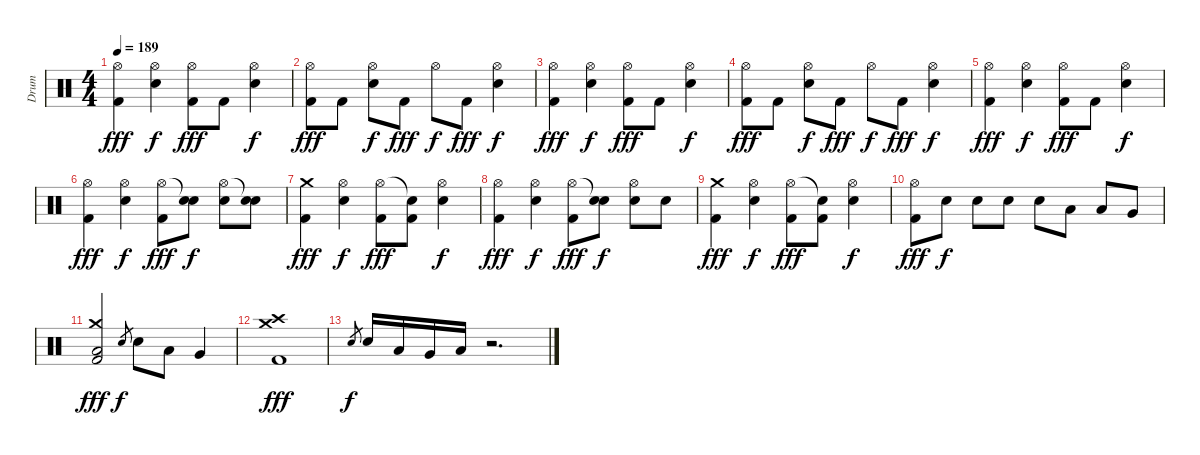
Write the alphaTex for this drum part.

\track ("Drum" "Drum") {instrument percussion}
\staff {score}
\articulation defaults
\ts (4 4)
\tempo 189
\clef neutral
\ks c
("Hi-Hat (open)" "Kick (hit) 2").4{dy fff} ("Hi-Hat (open)" "Electric Snare (hit)").4{dy f} ("Hi-Hat (open)" "Kick (hit) 2").8{dy fff} "Kick (hit) 2".8 ("Hi-Hat (open)" "Electric Snare (hit)").4{dy f} |
("Hi-Hat (open)" "Kick (hit) 2").8{dy fff} "Kick (hit) 2".8 ("Hi-Hat (open)" "Electric Snare (hit)").8{dy f} "Kick (hit) 2".8{dy fff} "Hi-Hat (open)".8{dy f} "Kick (hit) 2".8{dy fff} ("Hi-Hat (open)" "Electric Snare (hit)").4{dy f} |
("Hi-Hat (open)" "Kick (hit) 2").4{dy fff} ("Hi-Hat (open)" "Electric Snare (hit)").4{dy f} ("Hi-Hat (open)" "Kick (hit) 2").8{dy fff} "Kick (hit) 2".8 ("Hi-Hat (open)" "Electric Snare (hit)").4{dy f} |
("Hi-Hat (open)" "Kick (hit) 2").8{dy fff} "Kick (hit) 2".8 ("Hi-Hat (open)" "Electric Snare (hit)").8{dy f} "Kick (hit) 2".8{dy fff} "Hi-Hat (open)".8{dy f} "Kick (hit) 2".8{dy fff} ("Hi-Hat (open)" "Electric Snare (hit)").4{dy f} |
("Hi-Hat (open)" "Kick (hit) 2").4{dy fff} ("Hi-Hat (open)" "Electric Snare (hit)").4{dy f} ("Hi-Hat (open)" "Kick (hit) 2").8{dy fff} "Kick (hit) 2".8 ("Hi-Hat (open)" "Electric Snare (hit)").4{dy f} |
("Hi-Hat (open)" "Kick (hit) 2").4{dy fff} ("Hi-Hat (open)" "Electric Snare (hit)").4{dy f} ("Hi-Hat (open)" "Kick (hit) 2").8{dy fff} ("Snare (hit)"{t} "Electric Snare (hit)").8{dy f} ("Hi-Hat (open)" "Electric Snare (hit)").8 ("Snare (hit)"{t} "Electric Snare (hit)").8 |
("Crash medium (hit)" "Kick (hit) 2").4{dy fff} ("Hi-Hat (open)" "Electric Snare (hit)").4{dy f} ("Hi-Hat (open)" "Kick (hit) 2").8{dy fff} ("Snare (hit)"{t} "Kick (hit) 2").8 ("Hi-Hat (open)" "Electric Snare (hit)").4{dy f} |
("Hi-Hat (open)" "Kick (hit) 2").4{dy fff} ("Hi-Hat (open)" "Electric Snare (hit)").4{dy f} ("Hi-Hat (open)" "Kick (hit) 2").8{dy fff} ("Snare (hit)"{t} "Electric Snare (hit)").8{dy f} ("Hi-Hat (open)" "Electric Snare (hit)").8 "Electric Snare (hit)".8 |
("Crash medium (hit)" "Kick (hit) 2").4{dy fff} ("Hi-Hat (open)" "Electric Snare (hit)").4{dy f} ("Hi-Hat (open)" "Kick (hit) 2").8{dy fff} ("Snare (hit)"{t} "Kick (hit) 2").8 ("Hi-Hat (open)" "Electric Snare (hit)").4{dy f} |
("Hi-Hat (open)" "Kick (hit) 2").8{dy fff} "Electric Snare (hit)".8{dy f} "Electric Snare (hit)".8 "Electric Snare (hit)".8 "Electric Snare (hit)".8 "Low Tom (hit)".8 "Low Tom (hit)".8 "Very Low Tom (hit)".8 |
("Crash medium (hit)" "Low Floor Tom (hit)" "Kick (hit) 2").2{dy fff} "Electric Snare (hit)".8{gr dy f} "Electric Snare (hit)".8 "Low Tom (hit)".8 "Very Low Tom (hit)".4 |
("Crash medium (hit)" "Crash high (hit)" "Kick (hit) 2").1{dy fff} |
"Electric Snare (hit)".8{gr dy f} "Electric Snare (hit)".16 "Low Tom (hit)".16 "Very Low Tom (hit)".16 "Low Floor Tom (hit)".16 r.2{d}
